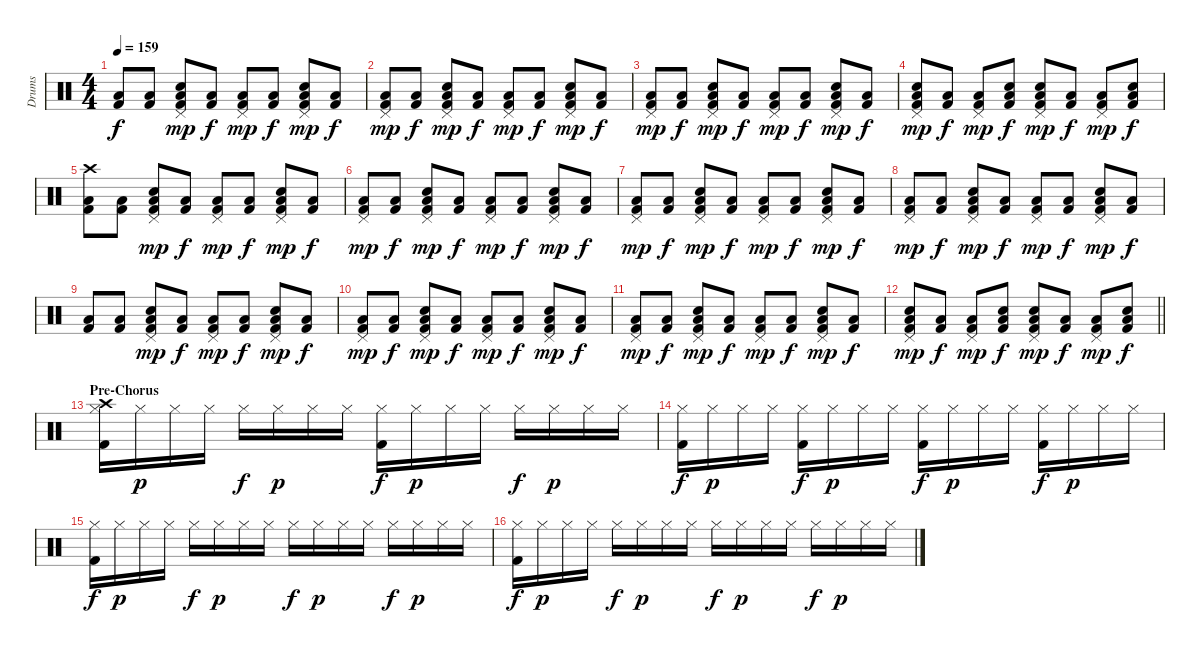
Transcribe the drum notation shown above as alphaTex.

\track ("Drums" "Drums") {instrument percussion}
\staff {score}
\articulation defaults
\ts (4 4)
\tempo 159
\clef neutral
\ks c
("Low Floor Tom (hit)" "Kick (hit) 2").8{dy f} ("Low Floor Tom (hit)" "Kick (hit) 2").8 ("Pedal Hi-Hat (hit)" "Electric Snare (hit)" "Low Floor Tom (hit)" "Kick (hit) 2").8{dy mp} ("Low Floor Tom (hit)" "Kick (hit) 2").8{dy f} ("Pedal Hi-Hat (hit)" "Low Floor Tom (hit)" "Kick (hit) 2").8{dy mp} ("Low Floor Tom (hit)" "Kick (hit) 2").8{dy f} ("Pedal Hi-Hat (hit)" "Electric Snare (hit)" "Low Floor Tom (hit)" "Kick (hit) 2").8{dy mp} ("Low Floor Tom (hit)" "Kick (hit) 2").8{dy f} |
("Pedal Hi-Hat (hit)" "Low Floor Tom (hit)" "Kick (hit) 2").8{dy mp} ("Low Floor Tom (hit)" "Kick (hit) 2").8{dy f} ("Pedal Hi-Hat (hit)" "Electric Snare (hit)" "Low Floor Tom (hit)" "Kick (hit) 2").8{dy mp} ("Low Floor Tom (hit)" "Kick (hit) 2").8{dy f} ("Pedal Hi-Hat (hit)" "Low Floor Tom (hit)" "Kick (hit) 2").8{dy mp} ("Low Floor Tom (hit)" "Kick (hit) 2").8{dy f} ("Pedal Hi-Hat (hit)" "Electric Snare (hit)" "Low Floor Tom (hit)" "Kick (hit) 2").8{dy mp} ("Low Floor Tom (hit)" "Kick (hit) 2").8{dy f} |
("Pedal Hi-Hat (hit)" "Low Floor Tom (hit)" "Kick (hit) 2").8{dy mp} ("Low Floor Tom (hit)" "Kick (hit) 2").8{dy f} ("Pedal Hi-Hat (hit)" "Electric Snare (hit)" "Low Floor Tom (hit)" "Kick (hit) 2").8{dy mp} ("Low Floor Tom (hit)" "Kick (hit) 2").8{dy f} ("Pedal Hi-Hat (hit)" "Low Floor Tom (hit)" "Kick (hit) 2").8{dy mp} ("Low Floor Tom (hit)" "Kick (hit) 2").8{dy f} ("Pedal Hi-Hat (hit)" "Electric Snare (hit)" "Low Floor Tom (hit)" "Kick (hit) 2").8{dy mp} ("Low Floor Tom (hit)" "Kick (hit) 2").8{dy f} |
("Pedal Hi-Hat (hit)" "Electric Snare (hit)" "Low Floor Tom (hit)" "Kick (hit) 2").8{dy mp} ("Low Floor Tom (hit)" "Kick (hit) 2").8{dy f} ("Pedal Hi-Hat (hit)" "Low Floor Tom (hit)" "Kick (hit) 2").8{dy mp} ("Electric Snare (hit)" "Low Floor Tom (hit)" "Kick (hit) 2").8{dy f} ("Pedal Hi-Hat (hit)" "Electric Snare (hit)" "Low Floor Tom (hit)" "Kick (hit) 2").8{dy mp} ("Low Floor Tom (hit)" "Kick (hit) 2").8{dy f} ("Pedal Hi-Hat (hit)" "Low Floor Tom (hit)" "Kick (hit) 2").8{dy mp} ("Electric Snare (hit)" "Low Floor Tom (hit)" "Kick (hit) 2").8{dy f} |
("Crash high (hit)" "Low Floor Tom (hit)" "Kick (hit) 2").8 ("Low Floor Tom (hit)" "Kick (hit) 2").8 ("Pedal Hi-Hat (hit)" "Electric Snare (hit)" "Low Floor Tom (hit)" "Kick (hit) 2").8{dy mp} ("Low Floor Tom (hit)" "Kick (hit) 2").8{dy f} ("Pedal Hi-Hat (hit)" "Low Floor Tom (hit)" "Kick (hit) 2").8{dy mp} ("Low Floor Tom (hit)" "Kick (hit) 2").8{dy f} ("Pedal Hi-Hat (hit)" "Electric Snare (hit)" "Low Floor Tom (hit)" "Kick (hit) 2").8{dy mp} ("Low Floor Tom (hit)" "Kick (hit) 2").8{dy f} |
("Pedal Hi-Hat (hit)" "Low Floor Tom (hit)" "Kick (hit) 2").8{dy mp} ("Low Floor Tom (hit)" "Kick (hit) 2").8{dy f} ("Pedal Hi-Hat (hit)" "Electric Snare (hit)" "Low Floor Tom (hit)" "Kick (hit) 2").8{dy mp} ("Low Floor Tom (hit)" "Kick (hit) 2").8{dy f} ("Pedal Hi-Hat (hit)" "Low Floor Tom (hit)" "Kick (hit) 2").8{dy mp} ("Low Floor Tom (hit)" "Kick (hit) 2").8{dy f} ("Pedal Hi-Hat (hit)" "Electric Snare (hit)" "Low Floor Tom (hit)" "Kick (hit) 2").8{dy mp} ("Low Floor Tom (hit)" "Kick (hit) 2").8{dy f} |
("Pedal Hi-Hat (hit)" "Low Floor Tom (hit)" "Kick (hit) 2").8{dy mp} ("Low Floor Tom (hit)" "Kick (hit) 2").8{dy f} ("Pedal Hi-Hat (hit)" "Electric Snare (hit)" "Low Floor Tom (hit)" "Kick (hit) 2").8{dy mp} ("Low Floor Tom (hit)" "Kick (hit) 2").8{dy f} ("Pedal Hi-Hat (hit)" "Low Floor Tom (hit)" "Kick (hit) 2").8{dy mp} ("Low Floor Tom (hit)" "Kick (hit) 2").8{dy f} ("Pedal Hi-Hat (hit)" "Electric Snare (hit)" "Low Floor Tom (hit)" "Kick (hit) 2").8{dy mp} ("Low Floor Tom (hit)" "Kick (hit) 2").8{dy f} |
("Pedal Hi-Hat (hit)" "Low Floor Tom (hit)" "Kick (hit) 2").8{dy mp} ("Low Floor Tom (hit)" "Kick (hit) 2").8{dy f} ("Pedal Hi-Hat (hit)" "Electric Snare (hit)" "Low Floor Tom (hit)" "Kick (hit) 2").8{dy mp} ("Low Floor Tom (hit)" "Kick (hit) 2").8{dy f} ("Pedal Hi-Hat (hit)" "Low Floor Tom (hit)" "Kick (hit) 2").8{dy mp} ("Low Floor Tom (hit)" "Kick (hit) 2").8{dy f} ("Pedal Hi-Hat (hit)" "Electric Snare (hit)" "Low Floor Tom (hit)" "Kick (hit) 2").8{dy mp} ("Low Floor Tom (hit)" "Kick (hit) 2").8{dy f} |
("Low Floor Tom (hit)" "Kick (hit) 2").8 ("Low Floor Tom (hit)" "Kick (hit) 2").8 ("Pedal Hi-Hat (hit)" "Electric Snare (hit)" "Low Floor Tom (hit)" "Kick (hit) 2").8{dy mp} ("Low Floor Tom (hit)" "Kick (hit) 2").8{dy f} ("Pedal Hi-Hat (hit)" "Low Floor Tom (hit)" "Kick (hit) 2").8{dy mp} ("Low Floor Tom (hit)" "Kick (hit) 2").8{dy f} ("Pedal Hi-Hat (hit)" "Electric Snare (hit)" "Low Floor Tom (hit)" "Kick (hit) 2").8{dy mp} ("Low Floor Tom (hit)" "Kick (hit) 2").8{dy f} |
("Pedal Hi-Hat (hit)" "Low Floor Tom (hit)" "Kick (hit) 2").8{dy mp} ("Low Floor Tom (hit)" "Kick (hit) 2").8{dy f} ("Pedal Hi-Hat (hit)" "Electric Snare (hit)" "Low Floor Tom (hit)" "Kick (hit) 2").8{dy mp} ("Low Floor Tom (hit)" "Kick (hit) 2").8{dy f} ("Pedal Hi-Hat (hit)" "Low Floor Tom (hit)" "Kick (hit) 2").8{dy mp} ("Low Floor Tom (hit)" "Kick (hit) 2").8{dy f} ("Pedal Hi-Hat (hit)" "Electric Snare (hit)" "Low Floor Tom (hit)" "Kick (hit) 2").8{dy mp} ("Low Floor Tom (hit)" "Kick (hit) 2").8{dy f} |
("Pedal Hi-Hat (hit)" "Low Floor Tom (hit)" "Kick (hit) 2").8{dy mp} ("Low Floor Tom (hit)" "Kick (hit) 2").8{dy f} ("Pedal Hi-Hat (hit)" "Electric Snare (hit)" "Low Floor Tom (hit)" "Kick (hit) 2").8{dy mp} ("Low Floor Tom (hit)" "Kick (hit) 2").8{dy f} ("Pedal Hi-Hat (hit)" "Low Floor Tom (hit)" "Kick (hit) 2").8{dy mp} ("Low Floor Tom (hit)" "Kick (hit) 2").8{dy f} ("Pedal Hi-Hat (hit)" "Electric Snare (hit)" "Low Floor Tom (hit)" "Kick (hit) 2").8{dy mp} ("Low Floor Tom (hit)" "Kick (hit) 2").8{dy f} |
\barLineRight lightlight
("Pedal Hi-Hat (hit)" "Electric Snare (hit)" "Low Floor Tom (hit)" "Kick (hit) 2").8{dy mp} ("Low Floor Tom (hit)" "Kick (hit) 2").8{dy f} ("Pedal Hi-Hat (hit)" "Low Floor Tom (hit)" "Kick (hit) 2").8{dy mp} ("Electric Snare (hit)" "Low Floor Tom (hit)" "Kick (hit) 2").8{dy f} ("Pedal Hi-Hat (hit)" "Electric Snare (hit)" "Low Floor Tom (hit)" "Kick (hit) 2").8{dy mp} ("Low Floor Tom (hit)" "Kick (hit) 2").8{dy f} ("Pedal Hi-Hat (hit)" "Low Floor Tom (hit)" "Kick (hit) 2").8{dy mp} ("Electric Snare (hit)" "Low Floor Tom (hit)" "Kick (hit) 2").8{dy f} |
\section ("" "Pre-Chorus")
("Hi-Hat (closed)" "Crash high (hit)" "Kick (hit) 2").16 "Hi-Hat (closed)".16{dy p} "Hi-Hat (closed)".16 "Hi-Hat (closed)".16 "Hi-Hat (closed)".16{dy f} "Hi-Hat (closed)".16{dy p} "Hi-Hat (closed)".16 "Hi-Hat (closed)".16 ("Hi-Hat (closed)" "Kick (hit) 2").16{dy f} "Hi-Hat (closed)".16{dy p} "Hi-Hat (closed)".16 "Hi-Hat (closed)".16 "Hi-Hat (closed)".16{dy f} "Hi-Hat (closed)".16{dy p} "Hi-Hat (closed)".16 "Hi-Hat (closed)".16 |
("Hi-Hat (closed)" "Kick (hit) 2").16{dy f} "Hi-Hat (closed)".16{dy p} "Hi-Hat (closed)".16 "Hi-Hat (closed)".16 ("Hi-Hat (closed)" "Kick (hit) 2").16{dy f} "Hi-Hat (closed)".16{dy p} "Hi-Hat (closed)".16 "Hi-Hat (closed)".16 ("Hi-Hat (closed)" "Kick (hit) 2").16{dy f} "Hi-Hat (closed)".16{dy p} "Hi-Hat (closed)".16 "Hi-Hat (closed)".16 ("Hi-Hat (closed)" "Kick (hit) 2").16{dy f} "Hi-Hat (closed)".16{dy p} "Hi-Hat (closed)".16 "Hi-Hat (closed)".16 |
("Hi-Hat (closed)" "Kick (hit) 2").16{dy f} "Hi-Hat (closed)".16{dy p} "Hi-Hat (closed)".16 "Hi-Hat (closed)".16 "Hi-Hat (closed)".16{dy f} "Hi-Hat (closed)".16{dy p} "Hi-Hat (closed)".16 "Hi-Hat (closed)".16 "Hi-Hat (closed)".16{dy f} "Hi-Hat (closed)".16{dy p} "Hi-Hat (closed)".16 "Hi-Hat (closed)".16 "Hi-Hat (closed)".16{dy f} "Hi-Hat (closed)".16{dy p} "Hi-Hat (closed)".16 "Hi-Hat (closed)".16 |
("Hi-Hat (closed)" "Kick (hit) 2").16{dy f} "Hi-Hat (closed)".16{dy p} "Hi-Hat (closed)".16 "Hi-Hat (closed)".16 "Hi-Hat (closed)".16{dy f} "Hi-Hat (closed)".16{dy p} "Hi-Hat (closed)".16 "Hi-Hat (closed)".16 "Hi-Hat (closed)".16{dy f} "Hi-Hat (closed)".16{dy p} "Hi-Hat (closed)".16 "Hi-Hat (closed)".16 "Hi-Hat (closed)".16{dy f} "Hi-Hat (closed)".16{dy p} "Hi-Hat (closed)".16 "Hi-Hat (closed)".16
